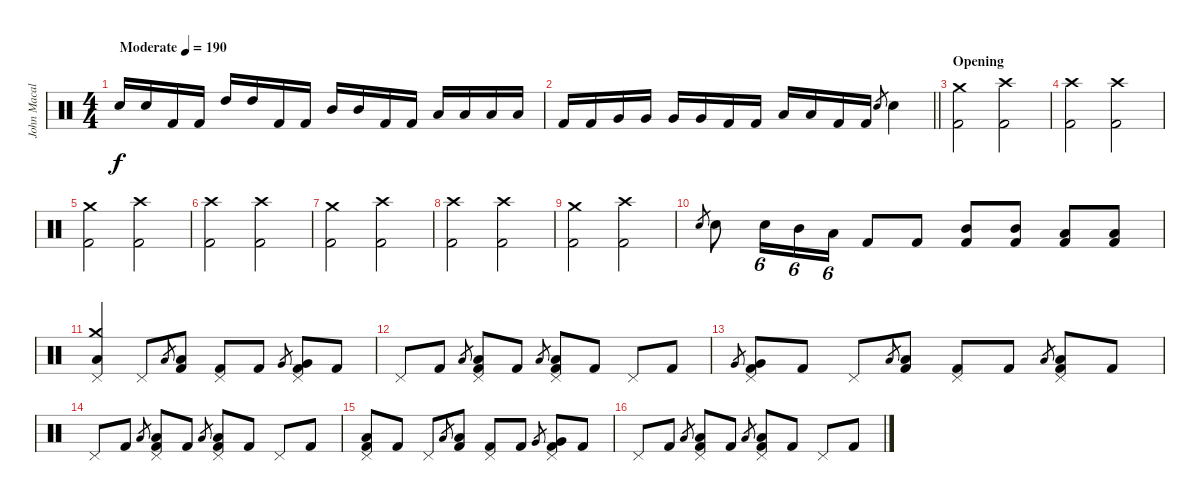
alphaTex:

\track ("John Macaluso" "John Macal") {instrument percussion}
\staff {score}
\articulation defaults
\ts (4 4)
\tempo (190 "Moderate")
\clef neutral
\ks c "Snare (hit) 2".16{dy f} "Snare (hit) 2".16 "Kick (hit) 2".16 "Kick (hit) 2".16 "High Tom (hit)".16 "High Tom (hit)".16 "Kick (hit) 2".16 "Kick (hit) 2".16 "Mid Tom (hit)".16 "Mid Tom (hit)".16 "Kick (hit) 2".16 "Kick (hit) 2".16 "Low Tom (hit)".16 "Low Tom (hit)".16 "Low Tom (hit)".16 "Low Tom (hit)".16
|
\barLineRight lightlight "Kick (hit) 2".16 "Kick (hit) 2".16 "Very Low Tom (hit)".16 "Very Low Tom (hit)".16 "Very Low Tom (hit)".16 "Very Low Tom (hit)".16 "Kick (hit) 2".16 "Kick (hit) 2".16 "Low Floor Tom (hit)".16 "Low Floor Tom (hit)".16 "Kick (hit) 2".16 "Kick (hit) 2".16 "Snare (hit) 2".8{gr} "Snare (hit) 2".4
|
\section ("" "Opening")
("Crash medium (hit)" "Kick (hit) 2").2 ("Crash high (hit)" "Kick (hit) 2").2 |
("Crash high (hit)" "Kick (hit) 2").2 ("Crash high (hit)" "Kick (hit) 2").2 |
("Crash medium (hit)" "Kick (hit) 2").2 ("Crash high (hit)" "Kick (hit) 2").2 |
("Crash high (hit)" "Kick (hit) 2").2 ("Crash high (hit)" "Kick (hit) 2").2 |
("Crash medium (hit)" "Kick (hit) 2").2 ("Crash high (hit)" "Kick (hit) 2").2 |
("Crash high (hit)" "Kick (hit) 2").2 ("Crash high (hit)" "Kick (hit) 2").2 |
("Crash medium (hit)" "Kick (hit) 2").2 ("Crash high (hit)" "Kick (hit) 2").2 |
"Snare (hit) 2".8{gr} "Snare (hit) 2".8 "Snare (hit) 2".16{tu (6 4)} "Mid Tom (hit)".16{tu (6 4)} "Low Tom (hit)".16{tu (6 4)} "Kick (hit) 2".8 "Kick (hit) 2".8 ("Mid Tom (hit)" "Kick (hit) 2").8 ("Mid Tom (hit)" "Kick (hit) 2").8 ("Low Tom (hit)" "Kick (hit) 2").8 ("Low Tom (hit)" "Kick (hit) 2").8 |
("Crash medium (hit)" "Pedal Hi-Hat (hit)" "Low Tom (hit)").4 "Pedal Hi-Hat (hit)".8 "Low Tom (hit)".8{gr} ("Low Tom (hit)" "Kick (hit) 2").8 ("Pedal Hi-Hat (hit)" "Kick (hit) 2").8 "Kick (hit) 2".8 "Very Low Tom (hit)".8{gr} ("Pedal Hi-Hat (hit)" "Very Low Tom (hit)" "Kick (hit) 2").8 "Kick (hit) 2".8 |
"Pedal Hi-Hat (hit)".8 "Kick (hit) 2".8 "Low Tom (hit)".8{gr} ("Pedal Hi-Hat (hit)" "Low Tom (hit)" "Kick (hit) 2").8 "Kick (hit) 2".8 "Low Tom (hit)".8{gr} ("Pedal Hi-Hat (hit)" "Low Tom (hit)" "Kick (hit) 2").8 "Kick (hit) 2".8 "Pedal Hi-Hat (hit)".8 "Kick (hit) 2".8 |
"Very Low Tom (hit)".8{gr} ("Pedal Hi-Hat (hit)" "Very Low Tom (hit)" "Kick (hit) 2").8 "Kick (hit) 2".8 "Pedal Hi-Hat (hit)".8 "Low Tom (hit)".8{gr} ("Low Tom (hit)" "Kick (hit) 2").8 ("Pedal Hi-Hat (hit)" "Kick (hit) 2").8 "Kick (hit) 2".8 "Low Tom (hit)".8{gr} ("Pedal Hi-Hat (hit)" "Low Tom (hit)" "Kick (hit) 2").8 "Kick (hit) 2".8 |
"Pedal Hi-Hat (hit)".8 "Kick (hit) 2".8 "Low Tom (hit)".8{gr} ("Pedal Hi-Hat (hit)" "Low Tom (hit)" "Kick (hit) 2").8 "Kick (hit) 2".8 "Low Tom (hit)".8{gr} ("Pedal Hi-Hat (hit)" "Low Tom (hit)" "Kick (hit) 2").8 "Kick (hit) 2".8 "Pedal Hi-Hat (hit)".8 "Kick (hit) 2".8 |
("Pedal Hi-Hat (hit)" "Low Tom (hit)" "Kick (hit) 2").8 "Kick (hit) 2".8 "Pedal Hi-Hat (hit)".8 "Low Tom (hit)".8{gr} ("Low Tom (hit)" "Kick (hit) 2").8 ("Pedal Hi-Hat (hit)" "Kick (hit) 2").8 "Kick (hit) 2".8 "Very Low Tom (hit)".8{gr} ("Pedal Hi-Hat (hit)" "Very Low Tom (hit)" "Kick (hit) 2").8 "Kick (hit) 2".8 |
"Pedal Hi-Hat (hit)".8 "Kick (hit) 2".8 "Low Tom (hit)".8{gr} ("Pedal Hi-Hat (hit)" "Low Tom (hit)" "Kick (hit) 2").8 "Kick (hit) 2".8 "Low Tom (hit)".8{gr} ("Pedal Hi-Hat (hit)" "Low Tom (hit)" "Kick (hit) 2").8 "Kick (hit) 2".8 "Pedal Hi-Hat (hit)".8 "Kick (hit) 2".8
